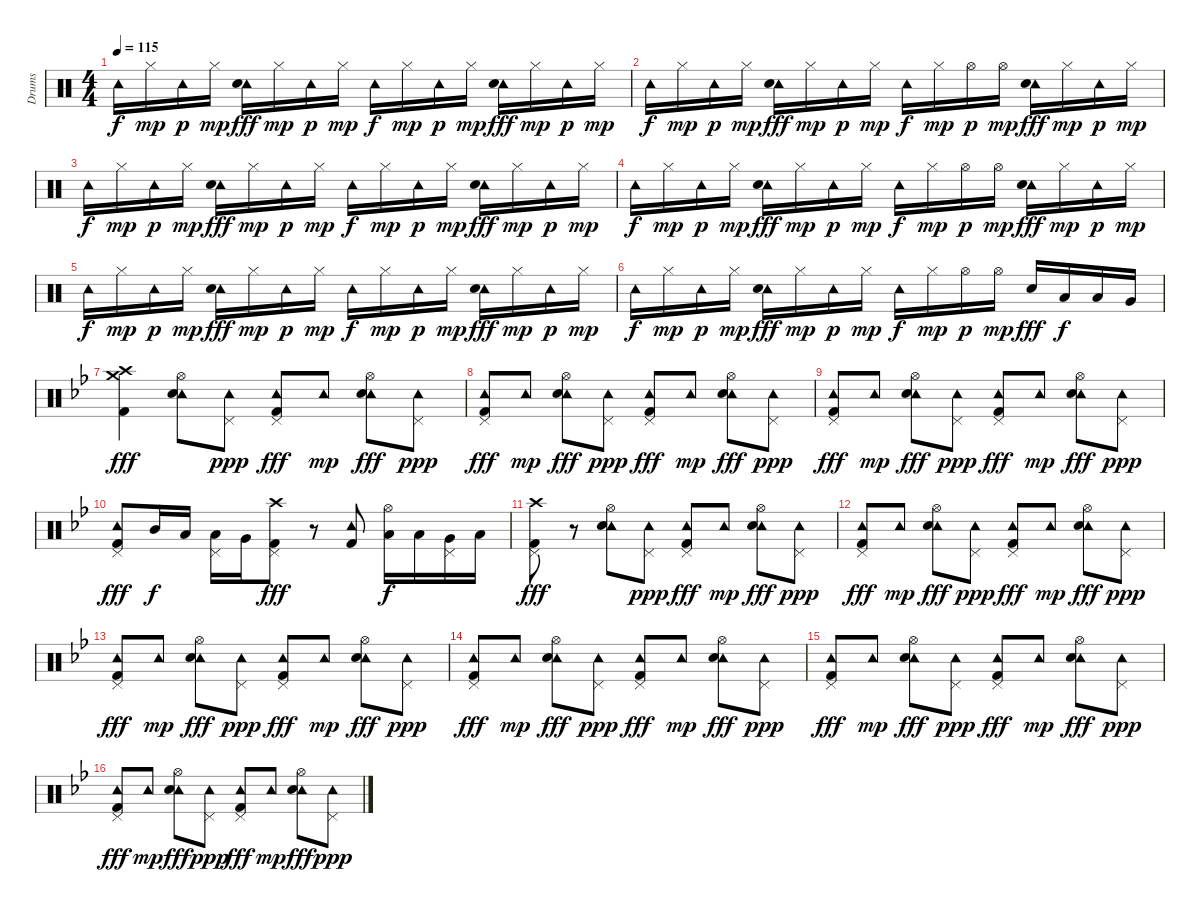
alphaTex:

\track ("Drums" "Drums") {instrument percussion}
\staff {score}
\articulation defaults
\ts (4 4)
\tempo 115
\clef neutral
\ks c "Tambourine (hit)".16{dy f} "Hi-Hat (closed)".16{dy mp} "Tambourine (hit)".16{dy p} "Hi-Hat (closed)".16{dy mp}
("Tambourine (hit)" "Electric Snare (hit)").16{dy fff} "Hi-Hat (closed)".16{dy mp} "Tambourine (hit)".16{dy p} "Hi-Hat (closed)".16{dy mp} "Tambourine (hit)".16{dy f} "Hi-Hat (closed)".16{dy mp} "Tambourine (hit)".16{dy p} "Hi-Hat (closed)".16{dy mp} ("Tambourine (hit)" "Electric Snare (hit)").16{dy fff} "Hi-Hat (closed)".16{dy mp} "Tambourine (hit)".16{dy p} "Hi-Hat (closed)".16{dy mp} |
"Tambourine (hit)".16{dy f} "Hi-Hat (closed)".16{dy mp} "Tambourine (hit)".16{dy p} "Hi-Hat (closed)".16{dy mp} ("Tambourine (hit)" "Electric Snare (hit)").16{dy fff} "Hi-Hat (closed)".16{dy mp} "Tambourine (hit)".16{dy p} "Hi-Hat (closed)".16{dy mp} "Tambourine (hit)".16{dy f} "Hi-Hat (closed)".16{dy mp} "Hi-Hat (open)".16{dy p} "Hi-Hat (open)".16{dy mp} ("Tambourine (hit)" "Electric Snare (hit)").16{dy fff} "Hi-Hat (closed)".16{dy mp} "Tambourine (hit)".16{dy p} "Hi-Hat (closed)".16{dy mp} |
"Tambourine (hit)".16{dy f} "Hi-Hat (closed)".16{dy mp} "Tambourine (hit)".16{dy p} "Hi-Hat (closed)".16{dy mp} ("Tambourine (hit)" "Electric Snare (hit)").16{dy fff} "Hi-Hat (closed)".16{dy mp} "Tambourine (hit)".16{dy p} "Hi-Hat (closed)".16{dy mp} "Tambourine (hit)".16{dy f} "Hi-Hat (closed)".16{dy mp} "Tambourine (hit)".16{dy p} "Hi-Hat (closed)".16{dy mp} ("Tambourine (hit)" "Electric Snare (hit)").16{dy fff} "Hi-Hat (closed)".16{dy mp} "Tambourine (hit)".16{dy p} "Hi-Hat (closed)".16{dy mp} |
"Tambourine (hit)".16{dy f} "Hi-Hat (closed)".16{dy mp} "Tambourine (hit)".16{dy p} "Hi-Hat (closed)".16{dy mp} ("Tambourine (hit)" "Electric Snare (hit)").16{dy fff} "Hi-Hat (closed)".16{dy mp} "Tambourine (hit)".16{dy p} "Hi-Hat (closed)".16{dy mp} "Tambourine (hit)".16{dy f} "Hi-Hat (closed)".16{dy mp} "Hi-Hat (open)".16{dy p} "Hi-Hat (open)".16{dy mp} ("Tambourine (hit)" "Electric Snare (hit)").16{dy fff} "Hi-Hat (closed)".16{dy mp} "Tambourine (hit)".16{dy p} "Hi-Hat (closed)".16{dy mp} |
"Tambourine (hit)".16{dy f} "Hi-Hat (closed)".16{dy mp} "Tambourine (hit)".16{dy p} "Hi-Hat (closed)".16{dy mp} ("Tambourine (hit)" "Electric Snare (hit)").16{dy fff} "Hi-Hat (closed)".16{dy mp} "Tambourine (hit)".16{dy p} "Hi-Hat (closed)".16{dy mp} "Tambourine (hit)".16{dy f} "Hi-Hat (closed)".16{dy mp} "Tambourine (hit)".16{dy p} "Hi-Hat (closed)".16{dy mp} ("Tambourine (hit)" "Electric Snare (hit)").16{dy fff} "Hi-Hat (closed)".16{dy mp} "Tambourine (hit)".16{dy p} "Hi-Hat (closed)".16{dy mp} |
"Tambourine (hit)".16{dy f} "Hi-Hat (closed)".16{dy mp} "Tambourine (hit)".16{dy p} "Hi-Hat (closed)".16{dy mp} ("Tambourine (hit)" "Electric Snare (hit)").16{dy fff} "Hi-Hat (closed)".16{dy mp} "Tambourine (hit)".16{dy p} "Hi-Hat (closed)".16{dy mp} "Tambourine (hit)".16{dy f} "Hi-Hat (closed)".16{dy mp} "Hi-Hat (open)".16{dy p} "Hi-Hat (open)".16{dy mp} "Electric Snare (hit)".16{dy fff} "Low Tom (hit)".16{dy f} "Low Tom (hit)".16 "Very Low Tom (hit)".16 |
\ks bb
("Crash high (hit)" "Crash medium (hit)" "Kick (hit) 2").4{dy fff} ("Tambourine (hit)" "Hi-Hat (open)" "Electric Snare (hit)").8 ("Tambourine (hit)" "Pedal Hi-Hat (hit)").8{dy ppp} ("Tambourine (hit)" "Pedal Hi-Hat (hit)" "Kick (hit) 2").8{dy fff} "Tambourine (hit)".8{dy mp} ("Tambourine (hit)" "Hi-Hat (open)" "Electric Snare (hit)").8{dy fff} ("Tambourine (hit)" "Pedal Hi-Hat (hit)").8{dy ppp} |
("Tambourine (hit)" "Pedal Hi-Hat (hit)" "Kick (hit) 2").8{dy fff} "Tambourine (hit)".8{dy mp} ("Tambourine (hit)" "Hi-Hat (open)" "Electric Snare (hit)").8{dy fff} ("Tambourine (hit)" "Pedal Hi-Hat (hit)").8{dy ppp} ("Tambourine (hit)" "Pedal Hi-Hat (hit)" "Kick (hit) 2").8{dy fff} "Tambourine (hit)".8{dy mp} ("Tambourine (hit)" "Hi-Hat (open)" "Electric Snare (hit)").8{dy fff} ("Tambourine (hit)" "Pedal Hi-Hat (hit)").8{dy ppp} |
("Tambourine (hit)" "Pedal Hi-Hat (hit)" "Kick (hit) 2").8{dy fff} "Tambourine (hit)".8{dy mp} ("Tambourine (hit)" "Hi-Hat (open)" "Electric Snare (hit)").8{dy fff} ("Tambourine (hit)" "Pedal Hi-Hat (hit)").8{dy ppp} ("Tambourine (hit)" "Pedal Hi-Hat (hit)" "Kick (hit) 2").8{dy fff} "Tambourine (hit)".8{dy mp} ("Tambourine (hit)" "Hi-Hat (open)" "Electric Snare (hit)").8{dy fff} ("Tambourine (hit)" "Pedal Hi-Hat (hit)").8{dy ppp} |
("Tambourine (hit)" "Pedal Hi-Hat (hit)" "Kick (hit) 2").8{dy fff} "Mid Tom (hit)".16{dy f} "Low Tom (hit)".16 ("Pedal Hi-Hat (hit)" "Low Tom (hit)").16 "Very Low Tom (hit)".16 ("Crash high (hit)" "Pedal Hi-Hat (hit)" "Kick (hit) 2").8{dy fff} r.8 ("Tambourine (hit)" "Kick (hit) 2").8 ("Hi-Hat (open)" "Low Tom (hit)").16{dy f} "Low Tom (hit)".16 ("Pedal Hi-Hat (hit)" "Very Low Tom (hit)").16 "Low Floor Tom (hit)".16 |
("Crash high (hit)" "Pedal Hi-Hat (hit)" "Kick (hit) 2").8{dy fff} r.8 ("Tambourine (hit)" "Hi-Hat (open)" "Electric Snare (hit)").8 ("Tambourine (hit)" "Pedal Hi-Hat (hit)").8{dy ppp} ("Tambourine (hit)" "Pedal Hi-Hat (hit)" "Kick (hit) 2").8{dy fff} "Tambourine (hit)".8{dy mp} ("Tambourine (hit)" "Hi-Hat (open)" "Electric Snare (hit)").8{dy fff} ("Tambourine (hit)" "Pedal Hi-Hat (hit)").8{dy ppp} |
("Tambourine (hit)" "Pedal Hi-Hat (hit)" "Kick (hit) 2").8{dy fff} "Tambourine (hit)".8{dy mp} ("Tambourine (hit)" "Hi-Hat (open)" "Electric Snare (hit)").8{dy fff} ("Tambourine (hit)" "Pedal Hi-Hat (hit)").8{dy ppp} ("Tambourine (hit)" "Pedal Hi-Hat (hit)" "Kick (hit) 2").8{dy fff} "Tambourine (hit)".8{dy mp} ("Tambourine (hit)" "Hi-Hat (open)" "Electric Snare (hit)").8{dy fff} ("Tambourine (hit)" "Pedal Hi-Hat (hit)").8{dy ppp} |
("Tambourine (hit)" "Pedal Hi-Hat (hit)" "Kick (hit) 2").8{dy fff} "Tambourine (hit)".8{dy mp} ("Tambourine (hit)" "Hi-Hat (open)" "Electric Snare (hit)").8{dy fff} ("Tambourine (hit)" "Pedal Hi-Hat (hit)").8{dy ppp} ("Tambourine (hit)" "Pedal Hi-Hat (hit)" "Kick (hit) 2").8{dy fff} "Tambourine (hit)".8{dy mp} ("Tambourine (hit)" "Hi-Hat (open)" "Electric Snare (hit)").8{dy fff} ("Tambourine (hit)" "Pedal Hi-Hat (hit)").8{dy ppp} |
("Tambourine (hit)" "Pedal Hi-Hat (hit)" "Kick (hit) 2").8{dy fff} "Tambourine (hit)".8{dy mp} ("Tambourine (hit)" "Hi-Hat (open)" "Electric Snare (hit)").8{dy fff} ("Tambourine (hit)" "Pedal Hi-Hat (hit)").8{dy ppp} ("Tambourine (hit)" "Pedal Hi-Hat (hit)" "Kick (hit) 2").8{dy fff} "Tambourine (hit)".8{dy mp} ("Tambourine (hit)" "Hi-Hat (open)" "Electric Snare (hit)").8{dy fff} ("Tambourine (hit)" "Pedal Hi-Hat (hit)").8{dy ppp} |
("Tambourine (hit)" "Pedal Hi-Hat (hit)" "Kick (hit) 2").8{dy fff} "Tambourine (hit)".8{dy mp} ("Tambourine (hit)" "Hi-Hat (open)" "Electric Snare (hit)").8{dy fff} ("Tambourine (hit)" "Pedal Hi-Hat (hit)").8{dy ppp} ("Tambourine (hit)" "Pedal Hi-Hat (hit)" "Kick (hit) 2").8{dy fff} "Tambourine (hit)".8{dy mp} ("Tambourine (hit)" "Hi-Hat (open)" "Electric Snare (hit)").8{dy fff} ("Tambourine (hit)" "Pedal Hi-Hat (hit)").8{dy ppp} |
("Tambourine (hit)" "Pedal Hi-Hat (hit)" "Kick (hit) 2").8{dy fff} "Tambourine (hit)".8{dy mp} ("Tambourine (hit)" "Hi-Hat (open)" "Electric Snare (hit)").8{dy fff} ("Tambourine (hit)" "Pedal Hi-Hat (hit)").8{dy ppp} ("Tambourine (hit)" "Pedal Hi-Hat (hit)" "Kick (hit) 2").8{dy fff} "Tambourine (hit)".8{dy mp} ("Tambourine (hit)" "Hi-Hat (open)" "Electric Snare (hit)").8{dy fff} ("Tambourine (hit)" "Pedal Hi-Hat (hit)").8{dy ppp}
